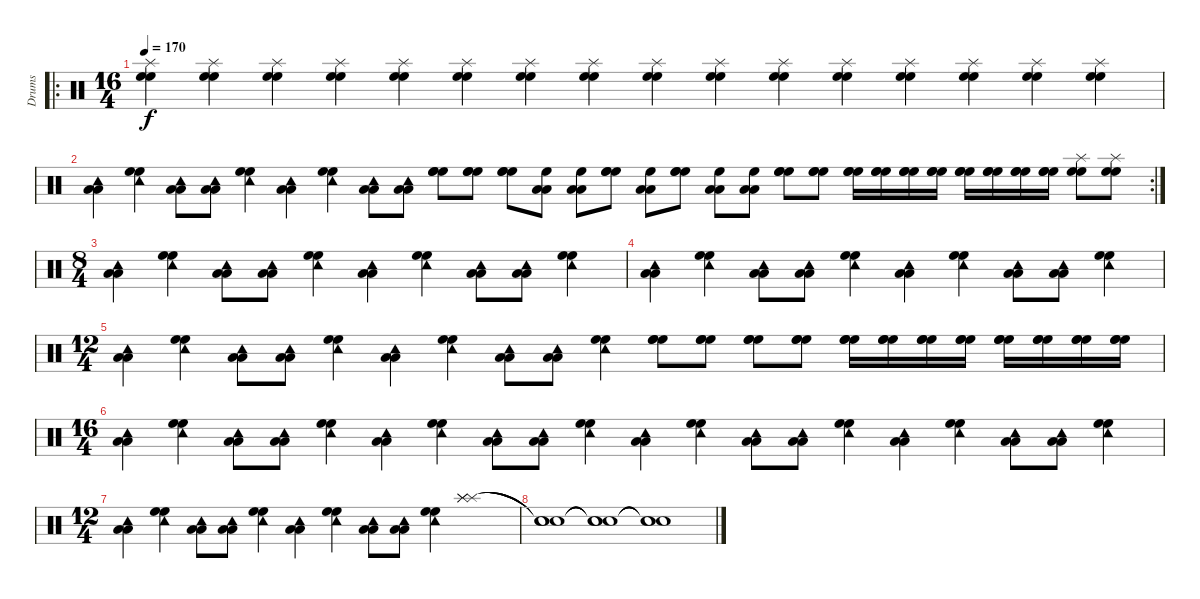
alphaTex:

\track ("Drums" "Drums") {instrument percussion}
\staff {score}
\articulation defaults
\ro
\ts (16 4)
\tempo 170
\clef neutral
\ks c
("High Floor Tom (hit)" "High Floor Tom (hit)" "Splash (hit)").4{dy f} ("High Floor Tom (hit)" "High Floor Tom (hit)" "Splash (hit)").4 ("High Floor Tom (hit)" "High Floor Tom (hit)" "Splash (hit)").4 ("High Floor Tom (hit)" "High Floor Tom (hit)" "Splash (hit)").4 ("High Floor Tom (hit)" "High Floor Tom (hit)" "Splash (hit)").4 ("High Floor Tom (hit)" "High Floor Tom (hit)" "Splash (hit)").4 ("High Floor Tom (hit)" "High Floor Tom (hit)" "Splash (hit)").4 ("High Floor Tom (hit)" "High Floor Tom (hit)" "Splash (hit)").4 ("High Floor Tom (hit)" "High Floor Tom (hit)" "Splash (hit)").4 ("High Floor Tom (hit)" "High Floor Tom (hit)" "Splash (hit)").4 ("High Floor Tom (hit)" "High Floor Tom (hit)" "Splash (hit)").4 ("High Floor Tom (hit)" "High Floor Tom (hit)" "Splash (hit)").4 ("High Floor Tom (hit)" "High Floor Tom (hit)" "Splash (hit)").4 ("High Floor Tom (hit)" "High Floor Tom (hit)" "Splash (hit)").4 ("High Floor Tom (hit)" "High Floor Tom (hit)" "Splash (hit)").4 ("High Floor Tom (hit)" "High Floor Tom (hit)" "Splash (hit)").4 |
\rc 2
("Low Tom (hit)" "Low Tom (hit)" "Tambourine (hit)").4 ("High Floor Tom (hit)" "High Floor Tom (hit)" "Tambourine (hit)").4 ("Low Tom (hit)" "Low Tom (hit)" "Tambourine (hit)").8 ("Low Tom (hit)" "Low Tom (hit)" "Tambourine (hit)").8 ("High Floor Tom (hit)" "High Floor Tom (hit)" "Tambourine (hit)").4 ("Low Tom (hit)" "Low Tom (hit)" "Tambourine (hit)").4 ("High Floor Tom (hit)" "High Floor Tom (hit)" "Tambourine (hit)").4 ("Low Tom (hit)" "Low Tom (hit)" "Tambourine (hit)").8 ("Low Tom (hit)" "Low Tom (hit)" "Tambourine (hit)").8 ("High Floor Tom (hit)" "High Floor Tom (hit)" "High Floor Tom (hit)").8 ("High Floor Tom (hit)" "High Floor Tom (hit)" "High Floor Tom (hit)").8 ("High Floor Tom (hit)" "High Floor Tom (hit)" "High Floor Tom (hit)").8 ("Low Tom (hit)" "Low Tom (hit)" "High Floor Tom (hit)").8 ("Low Tom (hit)" "Low Tom (hit)" "High Floor Tom (hit)").8 ("High Floor Tom (hit)" "High Floor Tom (hit)" "High Floor Tom (hit)").8 ("Low Tom (hit)" "Low Tom (hit)" "High Floor Tom (hit)").8 ("High Floor Tom (hit)" "High Floor Tom (hit)" "High Floor Tom (hit)").8 ("Low Tom (hit)" "Low Tom (hit)" "High Floor Tom (hit)").8 ("Low Tom (hit)" "Low Tom (hit)" "High Floor Tom (hit)").8 ("High Floor Tom (hit)" "High Floor Tom (hit)" "High Floor Tom (hit)").8 ("High Floor Tom (hit)" "High Floor Tom (hit)" "High Floor Tom (hit)").8 ("High Floor Tom (hit)" "High Floor Tom (hit)" "High Floor Tom (hit)").16 ("High Floor Tom (hit)" "High Floor Tom (hit)" "High Floor Tom (hit)").16 ("High Floor Tom (hit)" "High Floor Tom (hit)" "High Floor Tom (hit)").16 ("High Floor Tom (hit)" "High Floor Tom (hit)" "High Floor Tom (hit)").16 ("High Floor Tom (hit)" "High Floor Tom (hit)" "High Floor Tom (hit)").16 ("High Floor Tom (hit)" "High Floor Tom (hit)" "High Floor Tom (hit)").16 ("High Floor Tom (hit)" "High Floor Tom (hit)" "High Floor Tom (hit)").16 ("High Floor Tom (hit)" "High Floor Tom (hit)" "High Floor Tom (hit)").16 ("High Floor Tom (hit)" "High Floor Tom (hit)" "Splash (hit)").8 ("High Floor Tom (hit)" "High Floor Tom (hit)" "Splash (hit)").8 |
\ts (8 4)
("Low Tom (hit)" "Low Tom (hit)" "Tambourine (hit)").4 ("High Floor Tom (hit)" "High Floor Tom (hit)" "Tambourine (hit)").4 ("Low Tom (hit)" "Low Tom (hit)" "Tambourine (hit)").8 ("Low Tom (hit)" "Low Tom (hit)" "Tambourine (hit)").8 ("High Floor Tom (hit)" "High Floor Tom (hit)" "Tambourine (hit)").4 ("Low Tom (hit)" "Low Tom (hit)" "Tambourine (hit)").4 ("High Floor Tom (hit)" "High Floor Tom (hit)" "Tambourine (hit)").4 ("Low Tom (hit)" "Low Tom (hit)" "Tambourine (hit)").8 ("Low Tom (hit)" "Low Tom (hit)" "Tambourine (hit)").8 ("High Floor Tom (hit)" "High Floor Tom (hit)" "Tambourine (hit)").4 |
("Low Tom (hit)" "Low Tom (hit)" "Tambourine (hit)").4 ("High Floor Tom (hit)" "High Floor Tom (hit)" "Tambourine (hit)").4 ("Low Tom (hit)" "Low Tom (hit)" "Tambourine (hit)").8 ("Low Tom (hit)" "Low Tom (hit)" "Tambourine (hit)").8 ("High Floor Tom (hit)" "High Floor Tom (hit)" "Tambourine (hit)").4 ("Low Tom (hit)" "Low Tom (hit)" "Tambourine (hit)").4 ("High Floor Tom (hit)" "High Floor Tom (hit)" "Tambourine (hit)").4 ("Low Tom (hit)" "Low Tom (hit)" "Tambourine (hit)").8 ("Low Tom (hit)" "Low Tom (hit)" "Tambourine (hit)").8 ("High Floor Tom (hit)" "High Floor Tom (hit)" "Tambourine (hit)").4 |
\ts (12 4)
("Low Tom (hit)" "Low Tom (hit)" "Tambourine (hit)").4 ("High Floor Tom (hit)" "High Floor Tom (hit)" "Tambourine (hit)").4 ("Low Tom (hit)" "Low Tom (hit)" "Tambourine (hit)").8 ("Low Tom (hit)" "Low Tom (hit)" "Tambourine (hit)").8 ("High Floor Tom (hit)" "High Floor Tom (hit)" "Tambourine (hit)").4 ("Low Tom (hit)" "Low Tom (hit)" "Tambourine (hit)").4 ("High Floor Tom (hit)" "High Floor Tom (hit)" "Tambourine (hit)").4 ("Low Tom (hit)" "Low Tom (hit)" "Tambourine (hit)").8 ("Low Tom (hit)" "Low Tom (hit)" "Tambourine (hit)").8 ("High Floor Tom (hit)" "High Floor Tom (hit)" "Tambourine (hit)").4 ("High Floor Tom (hit)" "High Floor Tom (hit)" "High Floor Tom (hit)").8 ("High Floor Tom (hit)" "High Floor Tom (hit)" "High Floor Tom (hit)").8 ("High Floor Tom (hit)" "High Floor Tom (hit)" "High Floor Tom (hit)").8 ("High Floor Tom (hit)" "High Floor Tom (hit)" "High Floor Tom (hit)").8 ("High Floor Tom (hit)" "High Floor Tom (hit)" "High Floor Tom (hit)").16 ("High Floor Tom (hit)" "High Floor Tom (hit)" "High Floor Tom (hit)").16 ("High Floor Tom (hit)" "High Floor Tom (hit)" "High Floor Tom (hit)").16 ("High Floor Tom (hit)" "High Floor Tom (hit)" "High Floor Tom (hit)").16 ("High Floor Tom (hit)" "High Floor Tom (hit)" "High Floor Tom (hit)").16 ("High Floor Tom (hit)" "High Floor Tom (hit)" "High Floor Tom (hit)").16 ("High Floor Tom (hit)" "High Floor Tom (hit)" "High Floor Tom (hit)").16 ("High Floor Tom (hit)" "High Floor Tom (hit)" "High Floor Tom (hit)").16 |
\ts (16 4)
("Low Tom (hit)" "Low Tom (hit)" "Tambourine (hit)").4 ("High Floor Tom (hit)" "High Floor Tom (hit)" "Tambourine (hit)").4 ("Low Tom (hit)" "Low Tom (hit)" "Tambourine (hit)").8 ("Low Tom (hit)" "Low Tom (hit)" "Tambourine (hit)").8 ("High Floor Tom (hit)" "High Floor Tom (hit)" "Tambourine (hit)").4 ("Low Tom (hit)" "Low Tom (hit)" "Tambourine (hit)").4 ("High Floor Tom (hit)" "High Floor Tom (hit)" "Tambourine (hit)").4 ("Low Tom (hit)" "Low Tom (hit)" "Tambourine (hit)").8 ("Low Tom (hit)" "Low Tom (hit)" "Tambourine (hit)").8 ("High Floor Tom (hit)" "High Floor Tom (hit)" "Tambourine (hit)").4 ("Low Tom (hit)" "Low Tom (hit)" "Tambourine (hit)").4 ("High Floor Tom (hit)" "High Floor Tom (hit)" "Tambourine (hit)").4 ("Low Tom (hit)" "Low Tom (hit)" "Tambourine (hit)").8 ("Low Tom (hit)" "Low Tom (hit)" "Tambourine (hit)").8 ("High Floor Tom (hit)" "High Floor Tom (hit)" "Tambourine (hit)").4 ("Low Tom (hit)" "Low Tom (hit)" "Tambourine (hit)").4 ("High Floor Tom (hit)" "High Floor Tom (hit)" "Tambourine (hit)").4 ("Low Tom (hit)" "Low Tom (hit)" "Tambourine (hit)").8 ("Low Tom (hit)" "Low Tom (hit)" "Tambourine (hit)").8 ("High Floor Tom (hit)" "High Floor Tom (hit)" "Tambourine (hit)").4 |
\ts (12 4)
("Low Tom (hit)" "Low Tom (hit)" "Tambourine (hit)").4 ("High Floor Tom (hit)" "High Floor Tom (hit)" "Tambourine (hit)").4 ("Low Tom (hit)" "Low Tom (hit)" "Tambourine (hit)").8 ("Low Tom (hit)" "Low Tom (hit)" "Tambourine (hit)").8 ("High Floor Tom (hit)" "High Floor Tom (hit)" "Tambourine (hit)").4 ("Low Tom (hit)" "Low Tom (hit)" "Tambourine (hit)").4 ("High Floor Tom (hit)" "High Floor Tom (hit)" "Tambourine (hit)").4 ("Low Tom (hit)" "Low Tom (hit)" "Tambourine (hit)").8 ("Low Tom (hit)" "Low Tom (hit)" "Tambourine (hit)").8 ("High Floor Tom (hit)" "High Floor Tom (hit)" "Tambourine (hit)").4 ("Splash (hit)" "Splash (hit)" "Splash (hit)").1 |
("Snare (hit)"{t} "Snare (hit)"{t} "Snare (hit)"{t}).1 ("Snare (hit)"{t} "Snare (hit)"{t} "Snare (hit)"{t}).1 ("Snare (hit)"{t} "Snare (hit)"{t} "Snare (hit)"{t}).1
